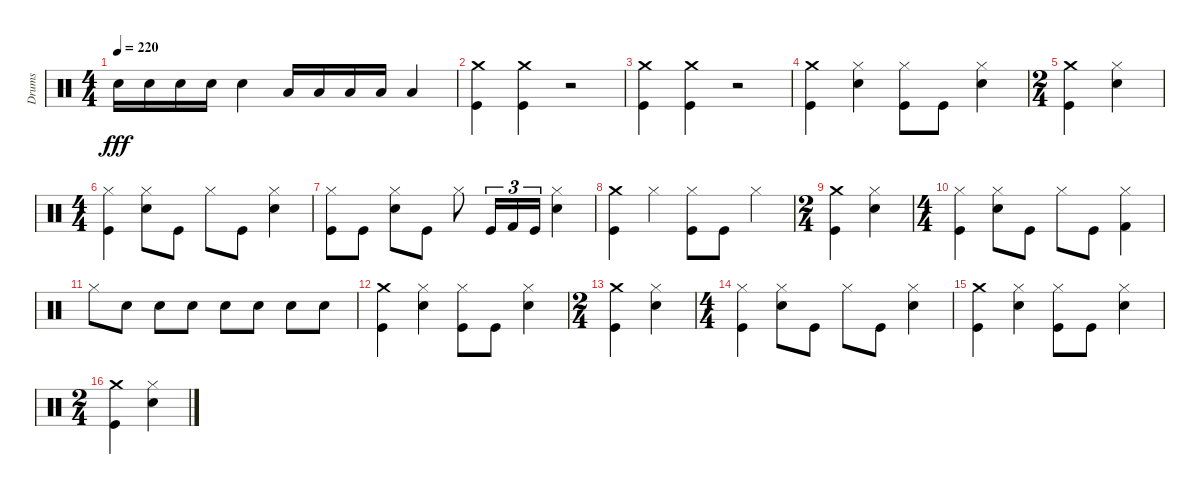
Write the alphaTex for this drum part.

\track ("Drums" "Drums") {instrument percussion}
\staff {score}
\articulation defaults
\ts (4 4)
\tempo 220
\clef neutral
\ks c "Snare (hit) 2".16{dy fff} "Snare (hit) 2".16 "Snare (hit) 2".16 "Snare (hit) 2".16 "Snare (hit) 2".4 "Low Tom (hit)".16 "Low Tom (hit)".16 "Low Tom (hit)".16 "Low Tom (hit)".16 "Low Tom (hit)".4
|
("Kick (hit)" "Crash medium (hit)").4 ("Kick (hit)" "Crash medium (hit)").4 r.2 |
("Kick (hit)" "Crash medium (hit)").4 ("Crash medium (hit)" "Kick (hit)").4 r.2 |
("Kick (hit)" "Crash medium (hit)").4 ("Snare (hit) 2" "Hi-Hat (closed)").4 ("Kick (hit)" "Hi-Hat (closed)").8 "Kick (hit)".8 ("Snare (hit) 2" "Hi-Hat (closed)").4 |
\ts (2 4)
("Kick (hit)" "Crash medium (hit)").4 ("Hi-Hat (closed)" "Snare (hit) 2").4 |
\ts (4 4)
("Kick (hit)" "Hi-Hat (closed)").4 ("Snare (hit) 2" "Hi-Hat (closed)").8 "Kick (hit)".8 "Hi-Hat (closed)".8 "Kick (hit)".8 ("Snare (hit) 2" "Hi-Hat (closed)").4 |
("Kick (hit)" "Hi-Hat (closed)").8 "Kick (hit)".8 ("Hi-Hat (closed)" "Snare (hit) 2").8 "Kick (hit)".8 "Hi-Hat (closed)".8 "Kick (hit)".16{tu (3 2)} "Kick (hit) 2".16{tu (3 2)} "Kick (hit)".16{tu (3 2)} ("Snare (hit) 2" "Hi-Hat (closed)").4 |
("Kick (hit)" "Crash medium (hit)").4 "Hi-Hat (closed)".4 ("Hi-Hat (closed)" "Kick (hit)").8 "Kick (hit)".8 "Hi-Hat (closed)".4 |
\ts (2 4)
("Kick (hit)" "Crash medium (hit)").4 ("Snare (hit) 2" "Hi-Hat (closed)").4 |
\ts (4 4)
("Kick (hit)" "Hi-Hat (closed)").4 ("Snare (hit) 2" "Hi-Hat (closed)").8 "Kick (hit)".8 "Hi-Hat (closed)".8 "Kick (hit)".8 ("Kick (hit) 2" "Hi-Hat (closed)").4 |
"Hi-Hat (closed)".8 "Snare (hit) 2".8 "Snare (hit) 2".8 "Snare (hit) 2".8 "Snare (hit) 2".8 "Snare (hit) 2".8 "Snare (hit) 2".8 "Snare (hit) 2".8 |
("Crash medium (hit)" "Kick (hit)").4 ("Hi-Hat (closed)" "Snare (hit) 2").4 ("Hi-Hat (closed)" "Kick (hit)").8 "Kick (hit)".8 ("Snare (hit) 2" "Hi-Hat (closed)").4 |
\ts (2 4)
("Kick (hit)" "Crash medium (hit)").4 ("Snare (hit) 2" "Hi-Hat (closed)").4 |
\ts (4 4)
("Hi-Hat (closed)" "Kick (hit)").4 ("Snare (hit) 2" "Hi-Hat (closed)").8 "Kick (hit)".8 "Hi-Hat (closed)".8 "Kick (hit)".8 ("Snare (hit) 2" "Hi-Hat (closed)").4 |
("Kick (hit)" "Crash medium (hit)").4 ("Snare (hit) 2" "Hi-Hat (closed)").4 ("Kick (hit)" "Hi-Hat (closed)").8 "Kick (hit)".8 ("Hi-Hat (closed)" "Snare (hit) 2").4 |
\ts (2 4)
("Kick (hit)" "Crash medium (hit)").4 ("Snare (hit) 2" "Hi-Hat (closed)").4
